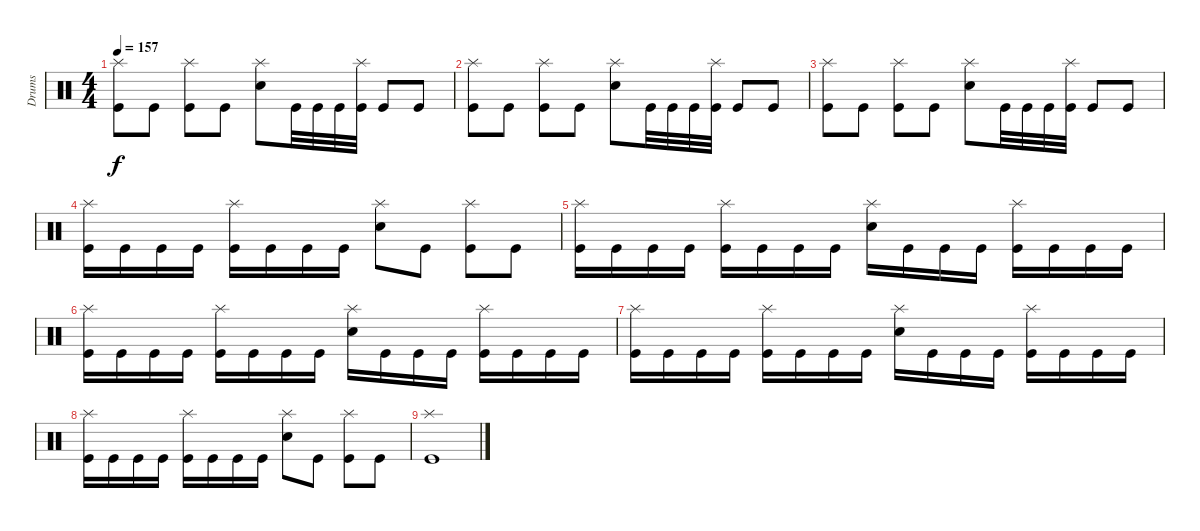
\track ("Drums" "Drums") {instrument percussion}
\staff {score}
\articulation defaults
\ts (4 4)
\tempo 157
\clef neutral
\ks c
("Splash (hit)" "Kick (hit)").8{dy f} "Kick (hit)".8 ("Splash (hit)" "Kick (hit)").8 "Kick (hit)".8 ("Splash (hit)" "Electric Snare (hit)").8 "Kick (hit)".32 "Kick (hit)".32 "Kick (hit)".32 ("Splash (hit)" "Kick (hit)").32 "Kick (hit)".8 "Kick (hit)".8 |
("Splash (hit)" "Kick (hit)").8 "Kick (hit)".8 ("Splash (hit)" "Kick (hit)").8 "Kick (hit)".8 ("Splash (hit)" "Electric Snare (hit)").8 "Kick (hit)".32 "Kick (hit)".32 "Kick (hit)".32 ("Splash (hit)" "Kick (hit)").32 "Kick (hit)".8 "Kick (hit)".8 |
("Splash (hit)" "Kick (hit)").8 "Kick (hit)".8 ("Splash (hit)" "Kick (hit)").8 "Kick (hit)".8 ("Splash (hit)" "Electric Snare (hit)").8 "Kick (hit)".32 "Kick (hit)".32 "Kick (hit)".32 ("Splash (hit)" "Kick (hit)").32 "Kick (hit)".8 "Kick (hit)".8 |
("Splash (hit)" "Kick (hit)").16 "Kick (hit)".16 "Kick (hit)".16 "Kick (hit)".16 ("Splash (hit)" "Kick (hit)").16 "Kick (hit)".16 "Kick (hit)".16 "Kick (hit)".16 ("Splash (hit)" "Electric Snare (hit)").8 "Kick (hit)".8 ("Splash (hit)" "Kick (hit)").8 "Kick (hit)".8 |
("Splash (hit)" "Kick (hit)").16 "Kick (hit)".16 "Kick (hit)".16 "Kick (hit)".16 ("Splash (hit)" "Kick (hit)").16 "Kick (hit)".16 "Kick (hit)".16 "Kick (hit)".16 ("Splash (hit)" "Electric Snare (hit)").16 "Kick (hit)".16 "Kick (hit)".16 "Kick (hit)".16 ("Splash (hit)" "Kick (hit)").16 "Kick (hit)".16 "Kick (hit)".16 "Kick (hit)".16 |
("Splash (hit)" "Kick (hit)").16 "Kick (hit)".16 "Kick (hit)".16 "Kick (hit)".16 ("Splash (hit)" "Kick (hit)").16 "Kick (hit)".16 "Kick (hit)".16 "Kick (hit)".16 ("Splash (hit)" "Electric Snare (hit)").16 "Kick (hit)".16 "Kick (hit)".16 "Kick (hit)".16 ("Splash (hit)" "Kick (hit)").16 "Kick (hit)".16 "Kick (hit)".16 "Kick (hit)".16 |
("Splash (hit)" "Kick (hit)").16 "Kick (hit)".16 "Kick (hit)".16 "Kick (hit)".16 ("Splash (hit)" "Kick (hit)").16 "Kick (hit)".16 "Kick (hit)".16 "Kick (hit)".16 ("Splash (hit)" "Electric Snare (hit)").16 "Kick (hit)".16 "Kick (hit)".16 "Kick (hit)".16 ("Splash (hit)" "Kick (hit)").16 "Kick (hit)".16 "Kick (hit)".16 "Kick (hit)".16 |
("Splash (hit)" "Kick (hit)").16 "Kick (hit)".16 "Kick (hit)".16 "Kick (hit)".16 ("Splash (hit)" "Kick (hit)").16 "Kick (hit)".16 "Kick (hit)".16 "Kick (hit)".16 ("Splash (hit)" "Electric Snare (hit)").8 "Kick (hit)".8 ("Splash (hit)" "Kick (hit)").8 "Kick (hit)".8 |
("Splash (hit)" "Kick (hit)").1
